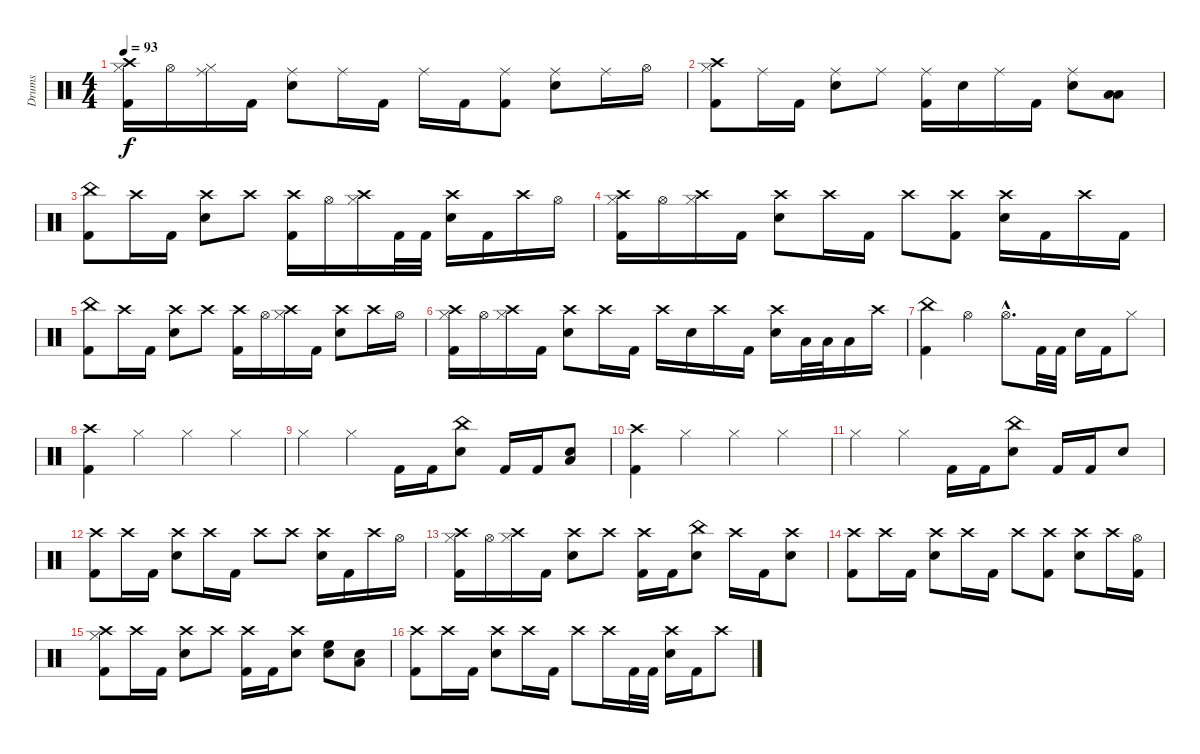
\track ("Drums" "Drums") {instrument percussion}
\staff {score}
\articulation defaults
\ts (4 4)
\tempo 93
\clef neutral
\ks c
("Crash high (hit)" "Hi-Hat (closed)" "Kick (hit) 2").16{dy f} "Hi-Hat (open)".16 ("Ride (middle)" "Hi-Hat (closed)").16 "Kick (hit) 2".16 ("Ride (middle)" "Electric Snare (hit)").8 "Ride (middle)".16 "Kick (hit) 2".16 "Ride (middle)".16 "Kick (hit) 2".16 ("Ride (middle)" "Kick (hit) 2").8 ("Ride (middle)" "Electric Snare (hit)").8 "Ride (middle)".16 "Hi-Hat (open)".16 |
("Crash high (hit)" "Hi-Hat (closed)" "Kick (hit) 2").8 "Ride (middle)".16 "Kick (hit) 2".16 ("Ride (middle)" "Electric Snare (hit)").8 "Ride (middle)".8 ("Ride (middle)" "Kick (hit) 2").16 "Electric Snare (hit)".16 "Ride (middle)".16 "Kick (hit) 2".16 ("Ride (middle)" "Electric Snare (hit)").8 ("Low Tom (hit)" "Low Floor Tom (hit)").8 |
("China (hit)" "Kick (hit) 2").8 "Crash high (hit)".16 "Kick (hit) 2".16 ("Crash high (hit)" "Electric Snare (hit)").8 "Crash high (hit)".8 ("Crash high (hit)" "Kick (hit) 2").16 "Hi-Hat (open)".16 ("Crash high (hit)" "Hi-Hat (closed)").16 "Kick (hit) 2".32 "Kick (hit) 2".32 ("Crash high (hit)" "Electric Snare (hit)").16 "Kick (hit) 2".16 "Crash high (hit)".16 "Hi-Hat (open)".16 |
("Crash high (hit)" "Hi-Hat (closed)" "Kick (hit) 2").16 "Hi-Hat (open)".16 ("Crash high (hit)" "Hi-Hat (closed)").16 "Kick (hit) 2".16 ("Crash high (hit)" "Electric Snare (hit)").8 "Crash high (hit)".16 "Kick (hit) 2".16 "Crash high (hit)".8 ("Crash high (hit)" "Kick (hit) 2").8 ("Crash high (hit)" "Electric Snare (hit)").16 "Kick (hit) 2".16 "Crash high (hit)".16 "Kick (hit) 2".16 |
("China (hit)" "Kick (hit) 2").8 "Crash high (hit)".16 "Kick (hit) 2".16 ("Crash high (hit)" "Electric Snare (hit)").8 "Crash high (hit)".8 ("Crash high (hit)" "Kick (hit) 2").16 "Hi-Hat (open)".16 ("Crash high (hit)" "Hi-Hat (closed)").16 "Kick (hit) 2".16 ("Crash high (hit)" "Electric Snare (hit)").8 "Crash high (hit)".16 "Hi-Hat (open)".16 |
("Crash high (hit)" "Hi-Hat (closed)" "Kick (hit) 2").16 "Hi-Hat (open)".16 ("Crash high (hit)" "Hi-Hat (closed)").16 "Kick (hit) 2".16 ("Crash high (hit)" "Electric Snare (hit)").8 "Crash high (hit)".16 "Kick (hit) 2".16 "Crash high (hit)".16 "Electric Snare (hit)".16 "Crash high (hit)".16 "Kick (hit) 2".16 ("Crash high (hit)" "Electric Snare (hit)").16 "Low Tom (hit)".32 "Low Tom (hit)".32 "Low Floor Tom (hit)".16 "Crash high (hit)".16 |
("China (hit)" "Kick (hit) 2").4 "Hi-Hat (open)".4 "Hi-Hat (open)"{hac}.8{d} "Kick (hit) 2".32 "Kick (hit) 2".32 "Electric Snare (hit)".16 "Kick (hit) 2".16 "Hi-Hat (closed)".8 |
("Crash high (hit)" "Kick (hit) 2").4 "Hi-Hat (closed)".4 "Hi-Hat (closed)".4 "Hi-Hat (closed)".4 |
"Hi-Hat (closed)".4 "Hi-Hat (closed)".4 "Kick (hit) 2".16 "Kick (hit) 2".16 ("China (hit)" "Electric Snare (hit)").8 "Kick (hit) 2".16 "Kick (hit) 2".16 ("Electric Snare (hit)" "Low Floor Tom (hit)").8 |
("Crash high (hit)" "Kick (hit) 2").4 "Hi-Hat (closed)".4 "Hi-Hat (closed)".4 "Hi-Hat (closed)".4 |
"Hi-Hat (closed)".4 "Hi-Hat (closed)".4 "Kick (hit) 2".16 "Kick (hit) 2".16 ("China (hit)" "Electric Snare (hit)").8 "Kick (hit) 2".16 "Kick (hit) 2".16 "Electric Snare (hit)".8 |
("Crash high (hit)" "Kick (hit) 2").8 "Crash high (hit)".16 "Kick (hit) 2".16 ("Crash high (hit)" "Electric Snare (hit)").8 "Crash high (hit)".16 "Kick (hit) 2".16 "Crash high (hit)".8 "Crash high (hit)".8 ("Crash high (hit)" "Electric Snare (hit)").16 "Kick (hit) 2".16 "Crash high (hit)".16 "Hi-Hat (open)".16 |
("Crash high (hit)" "Hi-Hat (closed)" "Kick (hit) 2").16 "Hi-Hat (open)".16 ("Crash high (hit)" "Hi-Hat (closed)").16 "Kick (hit) 2".16 ("Crash high (hit)" "Electric Snare (hit)").8 "Crash high (hit)".8 ("Crash high (hit)" "Kick (hit) 2").16 "Kick (hit) 2".16 ("China (hit)" "Electric Snare (hit)").8 "Crash high (hit)".16 "Kick (hit) 2".16 ("Crash high (hit)" "Electric Snare (hit)").8 |
("Crash high (hit)" "Kick (hit) 2").8 "Crash high (hit)".16 "Kick (hit) 2".16 ("Crash high (hit)" "Electric Snare (hit)").8 "Crash high (hit)".16 "Kick (hit) 2".16 "Crash high (hit)".8 ("Crash high (hit)" "Kick (hit) 2").8 ("Crash high (hit)" "Electric Snare (hit)").8 "Crash high (hit)".16 ("Hi-Hat (open)" "Kick (hit) 2").16 |
("Crash high (hit)" "Hi-Hat (closed)" "Kick (hit) 2").8 "Crash high (hit)".16 "Kick (hit) 2".16 ("Crash high (hit)" "Electric Snare (hit)").8 "Crash high (hit)".8 ("Crash high (hit)" "Kick (hit) 2").16 "Kick (hit) 2".16 ("Crash high (hit)" "Electric Snare (hit)").8 ("High Floor Tom (hit)" "Electric Snare (hit)").8 ("Electric Snare (hit)" "Low Floor Tom (hit)").8 |
("Crash high (hit)" "Kick (hit) 2").8 "Crash high (hit)".16 "Kick (hit) 2".16 ("Crash high (hit)" "Electric Snare (hit)").8 "Crash high (hit)".16 "Kick (hit) 2".16 "Crash high (hit)".8 "Crash high (hit)".16 "Kick (hit) 2".32 "Kick (hit) 2".32 ("Crash high (hit)" "Electric Snare (hit)").16 "Kick (hit) 2".16 "Crash high (hit)".8
